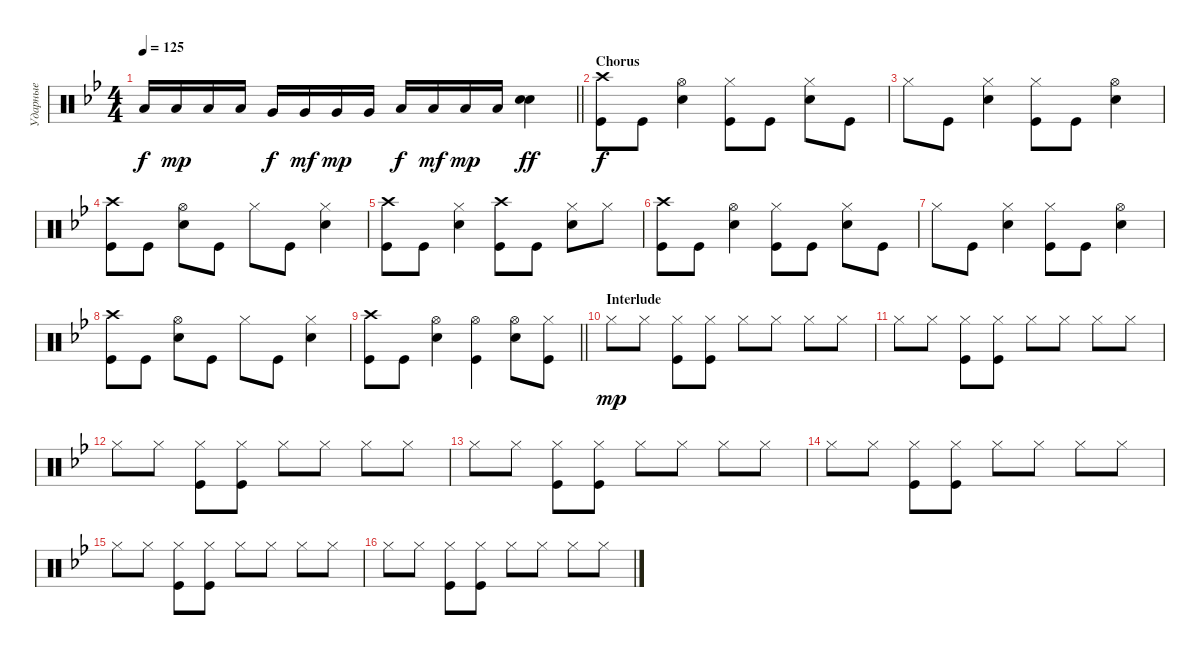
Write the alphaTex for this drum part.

\track ("Ударные" "Ударные") {instrument percussion}
\staff {score}
\articulation defaults
\ts (4 4)
\tempo 125
\clef neutral
\barLineRight lightlight
\ks gminor "Low Tom (hit)".16{dy f} "Low Tom (hit)".16{dy mp} "Low Tom (hit)".16 "Low Tom (hit)".16 "Very Low Tom (hit)".16{dy f} "Very Low Tom (hit)".16{dy mf} "Very Low Tom (hit)".16{dy mp} "Very Low Tom (hit)".16 "Low Floor Tom (hit)".16{dy f} "Low Floor Tom (hit)".16{dy mf} "Low Floor Tom (hit)".16{dy mp} "Low Floor Tom (hit)".16
("Snare (hit) 2" "Snare (hit) 2").4{bd 240 dy ff} |
\section ("" "Chorus")
("Kick (hit)" "Crash high (hit)").8{dy f} "Kick (hit)".8 ("Snare (hit) 2" "Hi-Hat (open)").4 ("Kick (hit)" "Hi-Hat (closed)").8 "Kick (hit)".8 ("Snare (hit) 2" "Hi-Hat (closed)").8 "Kick (hit)".8 |
"Hi-Hat (closed)".8 "Kick (hit)".8 ("Snare (hit) 2" "Hi-Hat (closed)").4 ("Kick (hit)" "Hi-Hat (closed)").8 "Kick (hit)".8 ("Snare (hit) 2" "Hi-Hat (open)").4 |
("Kick (hit)" "Crash high (hit)").8 "Kick (hit)".8 ("Snare (hit) 2" "Hi-Hat (open)").8 "Kick (hit)".8 "Hi-Hat (closed)".8 "Kick (hit)".8 ("Snare (hit) 2" "Hi-Hat (closed)").4 |
("Kick (hit)" "Crash high (hit)").8 "Kick (hit)".8 ("Snare (hit) 2" "Hi-Hat (closed)").4 ("Kick (hit)" "Crash high (hit)").8 "Kick (hit)".8 ("Snare (hit) 2" "Hi-Hat (closed)").8 "Hi-Hat (closed)".8 |
("Kick (hit)" "Crash high (hit)").8 "Kick (hit)".8 ("Snare (hit) 2" "Hi-Hat (open)").4 ("Kick (hit)" "Hi-Hat (closed)").8 "Kick (hit)".8 ("Snare (hit) 2" "Hi-Hat (closed)").8 "Kick (hit)".8 |
"Hi-Hat (closed)".8 "Kick (hit)".8 ("Snare (hit) 2" "Hi-Hat (closed)").4 ("Kick (hit)" "Hi-Hat (closed)").8 "Kick (hit)".8 ("Snare (hit) 2" "Hi-Hat (open)").4 |
("Kick (hit)" "Crash high (hit)").8 "Kick (hit)".8 ("Snare (hit) 2" "Hi-Hat (open)").8 "Kick (hit)".8 "Hi-Hat (closed)".8 "Kick (hit)".8 ("Snare (hit) 2" "Hi-Hat (closed)").4 |
\barLineRight lightlight
("Kick (hit)" "Crash high (hit)").8 "Kick (hit)".8 ("Snare (hit) 2" "Hi-Hat (open)").4 ("Hi-Hat (open)" "Kick (hit)").4 ("Snare (hit) 2" "Hi-Hat (open)").8 ("Kick (hit)" "Hi-Hat (closed)").8 |
\section ("" "Interlude")
"Hi-Hat (closed)".8{dy mp} "Hi-Hat (closed)".8 ("Hi-Hat (closed)" "Kick (hit)").8 ("Hi-Hat (closed)" "Kick (hit)").8 "Hi-Hat (closed)".8 "Hi-Hat (closed)".8 "Hi-Hat (closed)".8 "Hi-Hat (closed)".8 |
"Hi-Hat (closed)".8 "Hi-Hat (closed)".8 ("Hi-Hat (closed)" "Kick (hit)").8 ("Hi-Hat (closed)" "Kick (hit)").8 "Hi-Hat (closed)".8 "Hi-Hat (closed)".8 "Hi-Hat (closed)".8 "Hi-Hat (closed)".8 |
"Hi-Hat (closed)".8 "Hi-Hat (closed)".8 ("Hi-Hat (closed)" "Kick (hit)").8 ("Hi-Hat (closed)" "Kick (hit)").8 "Hi-Hat (closed)".8 "Hi-Hat (closed)".8 "Hi-Hat (closed)".8 "Hi-Hat (closed)".8 |
"Hi-Hat (closed)".8 "Hi-Hat (closed)".8 ("Hi-Hat (closed)" "Kick (hit)").8 ("Hi-Hat (closed)" "Kick (hit)").8 "Hi-Hat (closed)".8 "Hi-Hat (closed)".8 "Hi-Hat (closed)".8 "Hi-Hat (closed)".8 |
"Hi-Hat (closed)".8 "Hi-Hat (closed)".8 ("Hi-Hat (closed)" "Kick (hit)").8 ("Hi-Hat (closed)" "Kick (hit)").8 "Hi-Hat (closed)".8 "Hi-Hat (closed)".8 "Hi-Hat (closed)".8 "Hi-Hat (closed)".8 |
"Hi-Hat (closed)".8 "Hi-Hat (closed)".8 ("Hi-Hat (closed)" "Kick (hit)").8 ("Hi-Hat (closed)" "Kick (hit)").8 "Hi-Hat (closed)".8 "Hi-Hat (closed)".8 "Hi-Hat (closed)".8 "Hi-Hat (closed)".8 |
"Hi-Hat (closed)".8 "Hi-Hat (closed)".8 ("Hi-Hat (closed)" "Kick (hit)").8 ("Hi-Hat (closed)" "Kick (hit)").8 "Hi-Hat (closed)".8 "Hi-Hat (closed)".8 "Hi-Hat (closed)".8 "Hi-Hat (closed)".8
